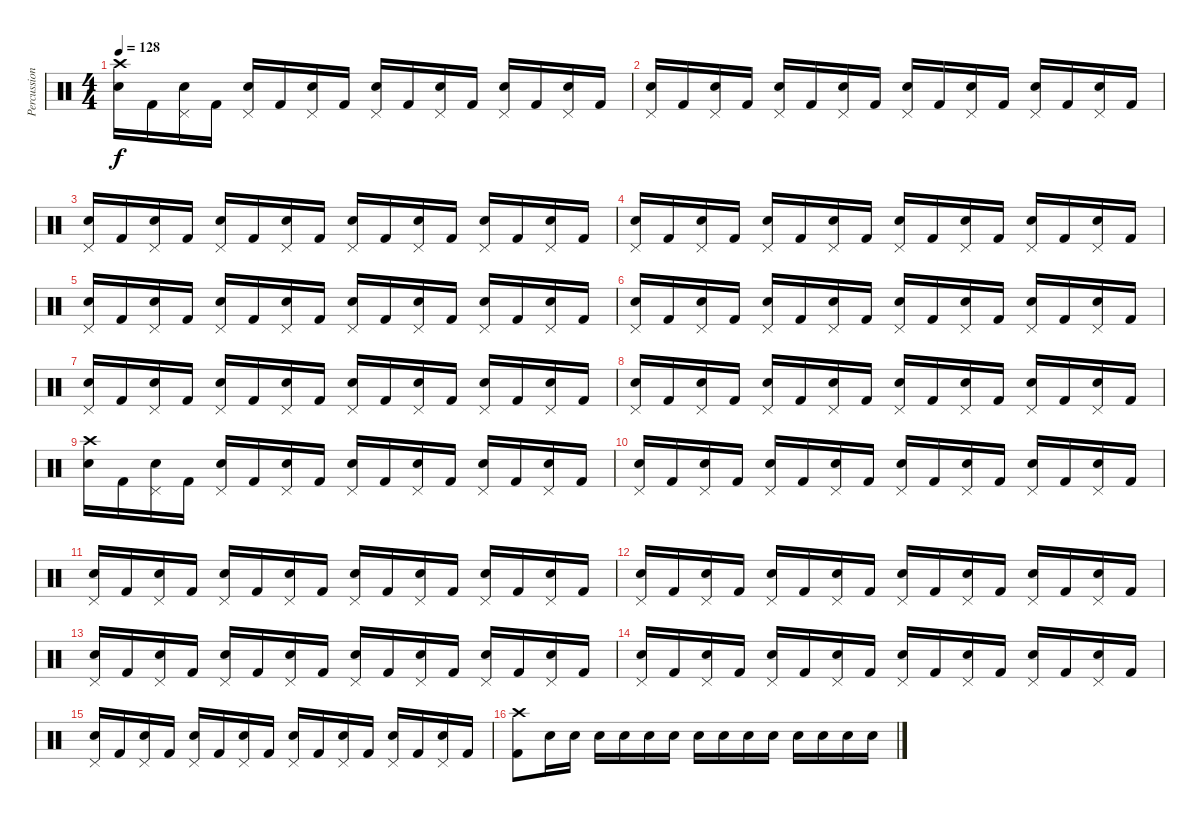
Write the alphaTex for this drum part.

\track ("Percussion" "Percussion") {instrument percussion}
\staff {score}
\articulation defaults
\ts (4 4)
\tempo 128
\clef neutral
\ks c
("Crash high (hit)" "Electric Snare (hit)").16{dy f} "Kick (hit) 2".16 ("Pedal Hi-Hat (hit)" "Electric Snare (hit)").16 "Kick (hit) 2".16 ("Pedal Hi-Hat (hit)" "Electric Snare (hit)").16 "Kick (hit) 2".16 ("Pedal Hi-Hat (hit)" "Electric Snare (hit)").16 "Kick (hit) 2".16 ("Pedal Hi-Hat (hit)" "Electric Snare (hit)").16 "Kick (hit) 2".16 ("Pedal Hi-Hat (hit)" "Electric Snare (hit)").16 "Kick (hit) 2".16 ("Pedal Hi-Hat (hit)" "Electric Snare (hit)").16 "Kick (hit) 2".16 ("Pedal Hi-Hat (hit)" "Electric Snare (hit)").16 "Kick (hit) 2".16 |
("Pedal Hi-Hat (hit)" "Electric Snare (hit)").16 "Kick (hit) 2".16 ("Pedal Hi-Hat (hit)" "Electric Snare (hit)").16 "Kick (hit) 2".16 ("Pedal Hi-Hat (hit)" "Electric Snare (hit)").16 "Kick (hit) 2".16 ("Pedal Hi-Hat (hit)" "Electric Snare (hit)").16 "Kick (hit) 2".16 ("Pedal Hi-Hat (hit)" "Electric Snare (hit)").16 "Kick (hit) 2".16 ("Pedal Hi-Hat (hit)" "Electric Snare (hit)").16 "Kick (hit) 2".16 ("Pedal Hi-Hat (hit)" "Electric Snare (hit)").16 "Kick (hit) 2".16 ("Pedal Hi-Hat (hit)" "Electric Snare (hit)").16 "Kick (hit) 2".16 |
("Pedal Hi-Hat (hit)" "Electric Snare (hit)").16 "Kick (hit) 2".16 ("Pedal Hi-Hat (hit)" "Electric Snare (hit)").16 "Kick (hit) 2".16 ("Pedal Hi-Hat (hit)" "Electric Snare (hit)").16 "Kick (hit) 2".16 ("Pedal Hi-Hat (hit)" "Electric Snare (hit)").16 "Kick (hit) 2".16 ("Pedal Hi-Hat (hit)" "Electric Snare (hit)").16 "Kick (hit) 2".16 ("Pedal Hi-Hat (hit)" "Electric Snare (hit)").16 "Kick (hit) 2".16 ("Pedal Hi-Hat (hit)" "Electric Snare (hit)").16 "Kick (hit) 2".16 ("Pedal Hi-Hat (hit)" "Electric Snare (hit)").16 "Kick (hit) 2".16 |
("Pedal Hi-Hat (hit)" "Electric Snare (hit)").16 "Kick (hit) 2".16 ("Pedal Hi-Hat (hit)" "Electric Snare (hit)").16 "Kick (hit) 2".16 ("Pedal Hi-Hat (hit)" "Electric Snare (hit)").16 "Kick (hit) 2".16 ("Pedal Hi-Hat (hit)" "Electric Snare (hit)").16 "Kick (hit) 2".16 ("Pedal Hi-Hat (hit)" "Electric Snare (hit)").16 "Kick (hit) 2".16 ("Pedal Hi-Hat (hit)" "Electric Snare (hit)").16 "Kick (hit) 2".16 ("Pedal Hi-Hat (hit)" "Electric Snare (hit)").16 "Kick (hit) 2".16 ("Pedal Hi-Hat (hit)" "Electric Snare (hit)").16 "Kick (hit) 2".16 |
("Pedal Hi-Hat (hit)" "Electric Snare (hit)").16 "Kick (hit) 2".16 ("Pedal Hi-Hat (hit)" "Electric Snare (hit)").16 "Kick (hit) 2".16 ("Pedal Hi-Hat (hit)" "Electric Snare (hit)").16 "Kick (hit) 2".16 ("Pedal Hi-Hat (hit)" "Electric Snare (hit)").16 "Kick (hit) 2".16 ("Pedal Hi-Hat (hit)" "Electric Snare (hit)").16 "Kick (hit) 2".16 ("Pedal Hi-Hat (hit)" "Electric Snare (hit)").16 "Kick (hit) 2".16 ("Pedal Hi-Hat (hit)" "Electric Snare (hit)").16 "Kick (hit) 2".16 ("Pedal Hi-Hat (hit)" "Electric Snare (hit)").16 "Kick (hit) 2".16 |
("Pedal Hi-Hat (hit)" "Electric Snare (hit)").16 "Kick (hit) 2".16 ("Pedal Hi-Hat (hit)" "Electric Snare (hit)").16 "Kick (hit) 2".16 ("Pedal Hi-Hat (hit)" "Electric Snare (hit)").16 "Kick (hit) 2".16 ("Pedal Hi-Hat (hit)" "Electric Snare (hit)").16 "Kick (hit) 2".16 ("Pedal Hi-Hat (hit)" "Electric Snare (hit)").16 "Kick (hit) 2".16 ("Pedal Hi-Hat (hit)" "Electric Snare (hit)").16 "Kick (hit) 2".16 ("Pedal Hi-Hat (hit)" "Electric Snare (hit)").16 "Kick (hit) 2".16 ("Pedal Hi-Hat (hit)" "Electric Snare (hit)").16 "Kick (hit) 2".16 |
("Pedal Hi-Hat (hit)" "Electric Snare (hit)").16 "Kick (hit) 2".16 ("Pedal Hi-Hat (hit)" "Electric Snare (hit)").16 "Kick (hit) 2".16 ("Pedal Hi-Hat (hit)" "Electric Snare (hit)").16 "Kick (hit) 2".16 ("Pedal Hi-Hat (hit)" "Electric Snare (hit)").16 "Kick (hit) 2".16 ("Pedal Hi-Hat (hit)" "Electric Snare (hit)").16 "Kick (hit) 2".16 ("Pedal Hi-Hat (hit)" "Electric Snare (hit)").16 "Kick (hit) 2".16 ("Pedal Hi-Hat (hit)" "Electric Snare (hit)").16 "Kick (hit) 2".16 ("Pedal Hi-Hat (hit)" "Electric Snare (hit)").16 "Kick (hit) 2".16 |
("Pedal Hi-Hat (hit)" "Electric Snare (hit)").16 "Kick (hit) 2".16 ("Pedal Hi-Hat (hit)" "Electric Snare (hit)").16 "Kick (hit) 2".16 ("Pedal Hi-Hat (hit)" "Electric Snare (hit)").16 "Kick (hit) 2".16 ("Pedal Hi-Hat (hit)" "Electric Snare (hit)").16 "Kick (hit) 2".16 ("Pedal Hi-Hat (hit)" "Electric Snare (hit)").16 "Kick (hit) 2".16 ("Pedal Hi-Hat (hit)" "Electric Snare (hit)").16 "Kick (hit) 2".16 ("Pedal Hi-Hat (hit)" "Electric Snare (hit)").16 "Kick (hit) 2".16 ("Pedal Hi-Hat (hit)" "Electric Snare (hit)").16 "Kick (hit) 2".16 |
("Crash high (hit)" "Electric Snare (hit)").16 "Kick (hit) 2".16 ("Pedal Hi-Hat (hit)" "Electric Snare (hit)").16 "Kick (hit) 2".16 ("Pedal Hi-Hat (hit)" "Electric Snare (hit)").16 "Kick (hit) 2".16 ("Pedal Hi-Hat (hit)" "Electric Snare (hit)").16 "Kick (hit) 2".16 ("Pedal Hi-Hat (hit)" "Electric Snare (hit)").16 "Kick (hit) 2".16 ("Pedal Hi-Hat (hit)" "Electric Snare (hit)").16 "Kick (hit) 2".16 ("Pedal Hi-Hat (hit)" "Electric Snare (hit)").16 "Kick (hit) 2".16 ("Pedal Hi-Hat (hit)" "Electric Snare (hit)").16 "Kick (hit) 2".16 |
("Pedal Hi-Hat (hit)" "Electric Snare (hit)").16 "Kick (hit) 2".16 ("Pedal Hi-Hat (hit)" "Electric Snare (hit)").16 "Kick (hit) 2".16 ("Pedal Hi-Hat (hit)" "Electric Snare (hit)").16 "Kick (hit) 2".16 ("Pedal Hi-Hat (hit)" "Electric Snare (hit)").16 "Kick (hit) 2".16 ("Pedal Hi-Hat (hit)" "Electric Snare (hit)").16 "Kick (hit) 2".16 ("Pedal Hi-Hat (hit)" "Electric Snare (hit)").16 "Kick (hit) 2".16 ("Pedal Hi-Hat (hit)" "Electric Snare (hit)").16 "Kick (hit) 2".16 ("Pedal Hi-Hat (hit)" "Electric Snare (hit)").16 "Kick (hit) 2".16 |
("Pedal Hi-Hat (hit)" "Electric Snare (hit)").16 "Kick (hit) 2".16 ("Pedal Hi-Hat (hit)" "Electric Snare (hit)").16 "Kick (hit) 2".16 ("Pedal Hi-Hat (hit)" "Electric Snare (hit)").16 "Kick (hit) 2".16 ("Pedal Hi-Hat (hit)" "Electric Snare (hit)").16 "Kick (hit) 2".16 ("Pedal Hi-Hat (hit)" "Electric Snare (hit)").16 "Kick (hit) 2".16 ("Pedal Hi-Hat (hit)" "Electric Snare (hit)").16 "Kick (hit) 2".16 ("Pedal Hi-Hat (hit)" "Electric Snare (hit)").16 "Kick (hit) 2".16 ("Pedal Hi-Hat (hit)" "Electric Snare (hit)").16 "Kick (hit) 2".16 |
("Pedal Hi-Hat (hit)" "Electric Snare (hit)").16 "Kick (hit) 2".16 ("Pedal Hi-Hat (hit)" "Electric Snare (hit)").16 "Kick (hit) 2".16 ("Pedal Hi-Hat (hit)" "Electric Snare (hit)").16 "Kick (hit) 2".16 ("Pedal Hi-Hat (hit)" "Electric Snare (hit)").16 "Kick (hit) 2".16 ("Pedal Hi-Hat (hit)" "Electric Snare (hit)").16 "Kick (hit) 2".16 ("Pedal Hi-Hat (hit)" "Electric Snare (hit)").16 "Kick (hit) 2".16 ("Pedal Hi-Hat (hit)" "Electric Snare (hit)").16 "Kick (hit) 2".16 ("Pedal Hi-Hat (hit)" "Electric Snare (hit)").16 "Kick (hit) 2".16 |
("Pedal Hi-Hat (hit)" "Electric Snare (hit)").16 "Kick (hit) 2".16 ("Pedal Hi-Hat (hit)" "Electric Snare (hit)").16 "Kick (hit) 2".16 ("Pedal Hi-Hat (hit)" "Electric Snare (hit)").16 "Kick (hit) 2".16 ("Pedal Hi-Hat (hit)" "Electric Snare (hit)").16 "Kick (hit) 2".16 ("Pedal Hi-Hat (hit)" "Electric Snare (hit)").16 "Kick (hit) 2".16 ("Pedal Hi-Hat (hit)" "Electric Snare (hit)").16 "Kick (hit) 2".16 ("Pedal Hi-Hat (hit)" "Electric Snare (hit)").16 "Kick (hit) 2".16 ("Pedal Hi-Hat (hit)" "Electric Snare (hit)").16 "Kick (hit) 2".16 |
("Pedal Hi-Hat (hit)" "Electric Snare (hit)").16 "Kick (hit) 2".16 ("Pedal Hi-Hat (hit)" "Electric Snare (hit)").16 "Kick (hit) 2".16 ("Pedal Hi-Hat (hit)" "Electric Snare (hit)").16 "Kick (hit) 2".16 ("Pedal Hi-Hat (hit)" "Electric Snare (hit)").16 "Kick (hit) 2".16 ("Pedal Hi-Hat (hit)" "Electric Snare (hit)").16 "Kick (hit) 2".16 ("Pedal Hi-Hat (hit)" "Electric Snare (hit)").16 "Kick (hit) 2".16 ("Pedal Hi-Hat (hit)" "Electric Snare (hit)").16 "Kick (hit) 2".16 ("Pedal Hi-Hat (hit)" "Electric Snare (hit)").16 "Kick (hit) 2".16 |
("Pedal Hi-Hat (hit)" "Electric Snare (hit)").16 "Kick (hit) 2".16 ("Pedal Hi-Hat (hit)" "Electric Snare (hit)").16 "Kick (hit) 2".16 ("Pedal Hi-Hat (hit)" "Electric Snare (hit)").16 "Kick (hit) 2".16 ("Pedal Hi-Hat (hit)" "Electric Snare (hit)").16 "Kick (hit) 2".16 ("Pedal Hi-Hat (hit)" "Electric Snare (hit)").16 "Kick (hit) 2".16 ("Pedal Hi-Hat (hit)" "Electric Snare (hit)").16 "Kick (hit) 2".16 ("Pedal Hi-Hat (hit)" "Electric Snare (hit)").16 "Kick (hit) 2".16 ("Pedal Hi-Hat (hit)" "Electric Snare (hit)").16 "Kick (hit) 2".16 |
("Crash high (hit)" "Kick (hit) 2").8 "Electric Snare (hit)".16 "Electric Snare (hit)".16 "Electric Snare (hit)".16 "Electric Snare (hit)".16 "Electric Snare (hit)".16 "Electric Snare (hit)".16 "Electric Snare (hit)".16 "Electric Snare (hit)".16 "Electric Snare (hit)".16 "Electric Snare (hit)".16 "Electric Snare (hit)".16 "Electric Snare (hit)".16 "Electric Snare (hit)".16 "Electric Snare (hit)".16
